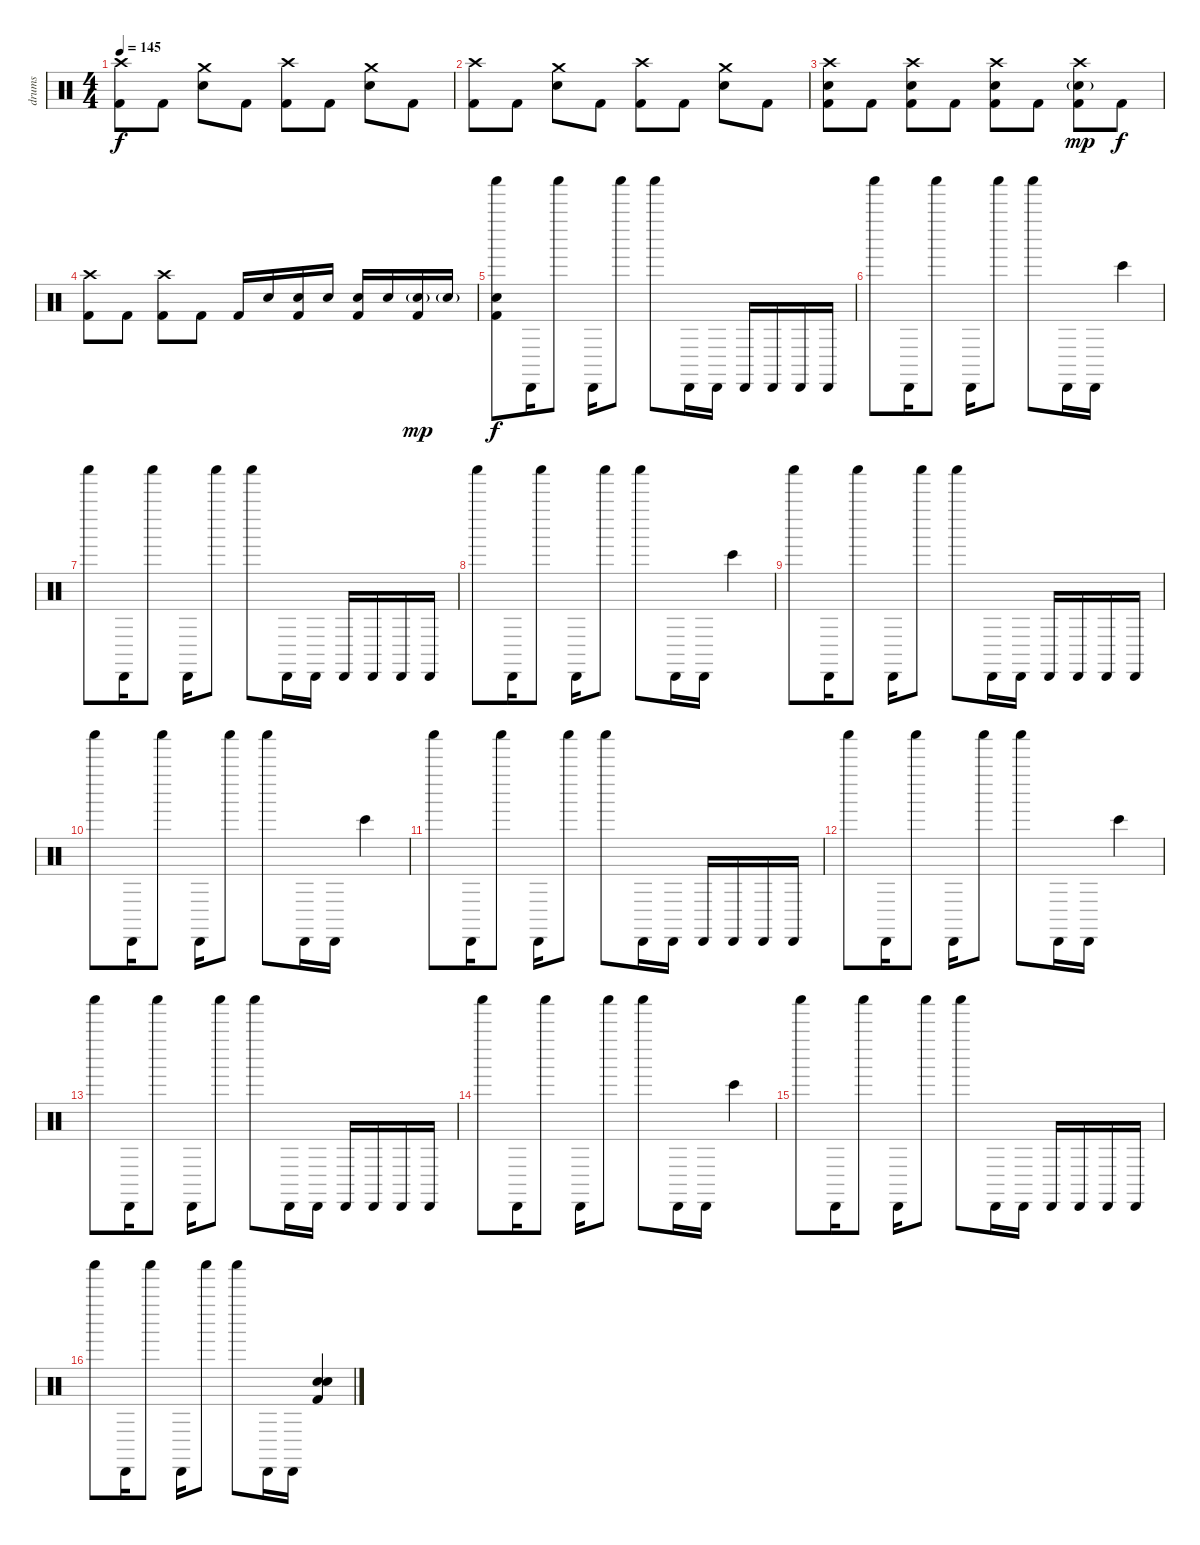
\track ("drums" "drums") {instrument percussion}
\staff {score}
\articulation defaults
\ts (4 4)
\tempo 145
\clef neutral
\ks c
("Crash high (hit)" "Kick (hit) 2").8{dy f} "Kick (hit) 2".8 ("Crash medium (hit)" "Snare (hit) 2").8 "Kick (hit) 2".8 ("Crash high (hit)" "Kick (hit) 2").8 "Kick (hit) 2".8 ("Crash medium (hit)" "Snare (hit) 2").8 "Kick (hit) 2".8 |
("Crash high (hit)" "Kick (hit) 2").8 "Kick (hit) 2".8 ("Crash medium (hit)" "Snare (hit) 2").8 "Kick (hit) 2".8 ("Crash high (hit)" "Kick (hit) 2").8 "Kick (hit) 2".8 ("Crash medium (hit)" "Snare (hit) 2").8 "Kick (hit) 2".8 |
("Crash high (hit)" "Snare (hit) 2" "Kick (hit) 2").8 "Kick (hit) 2".8 ("Crash high (hit)" "Snare (hit) 2" "Kick (hit) 2").8 "Kick (hit) 2".8 ("Crash high (hit)" "Snare (hit) 2" "Kick (hit) 2").8 "Kick (hit) 2".8 ("Crash high (hit)" "Snare (hit) 2"{g} "Kick (hit) 2").8{dy mp} "Kick (hit) 2".8{dy f} |
("Crash high (hit)" "Kick (hit) 2").8 "Kick (hit) 2".8 ("Crash high (hit)" "Kick (hit) 2").8 "Kick (hit) 2".8 "Kick (hit) 2".16 "Snare (hit) 2".16 ("Snare (hit) 2" "Kick (hit) 2").16 "Snare (hit) 2".16 ("Snare (hit) 2" "Kick (hit) 2").16 "Snare (hit) 2".16 ("Snare (hit) 2"{g} "Kick (hit) 2").16{dy mp} "Snare (hit) 2"{g}.16 |
("Shaker (hit)" "Snare (hit) 2" "Kick (hit) 2").8{dy f} "Cabasa (hit)".16 "Shaker (hit)".8 "Cabasa (hit)".16 "Shaker (hit)".8 "Shaker (hit)".8 "Cabasa (hit)".16 "Cabasa (hit)".16 "Cabasa (hit)".16 "Cabasa (hit)".16 "Cabasa (hit)".16 "Cabasa (hit)".16 |
"Shaker (hit)".8 "Cabasa (hit)".16 "Shaker (hit)".8 "Cabasa (hit)".16 "Shaker (hit)".8 "Shaker (hit)".8 "Cabasa (hit)".16 "Cabasa (hit)".16 "Bongo High (hit)".4 |
"Shaker (hit)".8 "Cabasa (hit)".16 "Shaker (hit)".8 "Cabasa (hit)".16 "Shaker (hit)".8 "Shaker (hit)".8 "Cabasa (hit)".16 "Cabasa (hit)".16 "Cabasa (hit)".16 "Cabasa (hit)".16 "Cabasa (hit)".16 "Cabasa (hit)".16 |
"Shaker (hit)".8 "Cabasa (hit)".16 "Shaker (hit)".8 "Cabasa (hit)".16 "Shaker (hit)".8 "Shaker (hit)".8 "Cabasa (hit)".16 "Cabasa (hit)".16 "Bongo High (hit)".4 |
"Shaker (hit)".8 "Cabasa (hit)".16 "Shaker (hit)".8 "Cabasa (hit)".16 "Shaker (hit)".8 "Shaker (hit)".8 "Cabasa (hit)".16 "Cabasa (hit)".16 "Cabasa (hit)".16 "Cabasa (hit)".16 "Cabasa (hit)".16 "Cabasa (hit)".16 |
"Shaker (hit)".8 "Cabasa (hit)".16 "Shaker (hit)".8 "Cabasa (hit)".16 "Shaker (hit)".8 "Shaker (hit)".8 "Cabasa (hit)".16 "Cabasa (hit)".16 "Bongo High (hit)".4 |
"Shaker (hit)".8 "Cabasa (hit)".16 "Shaker (hit)".8 "Cabasa (hit)".16 "Shaker (hit)".8 "Shaker (hit)".8 "Cabasa (hit)".16 "Cabasa (hit)".16 "Cabasa (hit)".16 "Cabasa (hit)".16 "Cabasa (hit)".16 "Cabasa (hit)".16 |
"Shaker (hit)".8 "Cabasa (hit)".16 "Shaker (hit)".8 "Cabasa (hit)".16 "Shaker (hit)".8 "Shaker (hit)".8 "Cabasa (hit)".16 "Cabasa (hit)".16 "Bongo High (hit)".4 |
"Shaker (hit)".8 "Cabasa (hit)".16 "Shaker (hit)".8 "Cabasa (hit)".16 "Shaker (hit)".8 "Shaker (hit)".8 "Cabasa (hit)".16 "Cabasa (hit)".16 "Cabasa (hit)".16 "Cabasa (hit)".16 "Cabasa (hit)".16 "Cabasa (hit)".16 |
"Shaker (hit)".8 "Cabasa (hit)".16 "Shaker (hit)".8 "Cabasa (hit)".16 "Shaker (hit)".8 "Shaker (hit)".8 "Cabasa (hit)".16 "Cabasa (hit)".16 "Bongo High (hit)".4 |
"Shaker (hit)".8 "Cabasa (hit)".16 "Shaker (hit)".8 "Cabasa (hit)".16 "Shaker (hit)".8 "Shaker (hit)".8 "Cabasa (hit)".16 "Cabasa (hit)".16 "Cabasa (hit)".16 "Cabasa (hit)".16 "Cabasa (hit)".16 "Cabasa (hit)".16 |
"Shaker (hit)".8 "Cabasa (hit)".16 "Shaker (hit)".8 "Cabasa (hit)".16 "Shaker (hit)".8 "Shaker (hit)".8 "Cabasa (hit)".16 "Cabasa (hit)".16 ("Snare (hit) 2" "Electric Snare (hit)" "Kick (hit) 2").4
